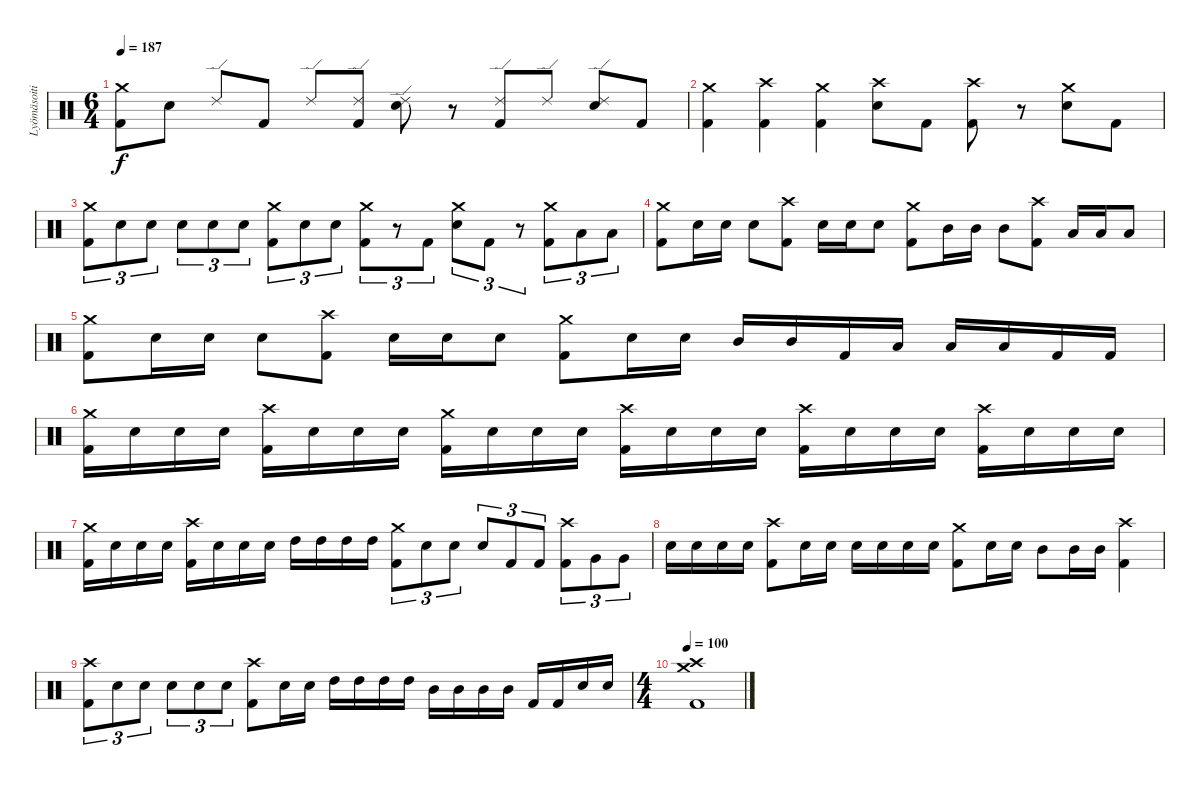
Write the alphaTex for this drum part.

\track ("Lyömäsoitin" "Lyömäsoiti") {instrument percussion}
\staff {score}
\articulation defaults
\ts (6 4)
\tempo 187
\clef neutral
\ks c
("Kick (hit) 2" "Crash medium (hit)").8{dy f} "Snare (hit) 2".8 "Ride (edge) 2".8 "Kick (hit) 2".8 "Ride (edge) 2".8 ("Ride (edge) 2" "Kick (hit) 2").8 ("Ride (edge) 2" "Snare (hit) 2").8 r.8 ("Ride (edge) 2" "Kick (hit) 2").8 "Ride (edge) 2".8 ("Ride (edge) 2" "Snare (hit) 2").8 "Kick (hit) 2".8 |
("Kick (hit) 2" "Crash medium (hit)").4 ("Crash high (hit)" "Kick (hit) 2").4 ("Kick (hit) 2" "Crash medium (hit)").4 ("Snare (hit) 2" "Crash high (hit)").8 "Kick (hit) 2".8 ("Kick (hit) 2" "Crash high (hit)").8 r.8 ("Crash medium (hit)" "Snare (hit) 2").8 "Kick (hit) 2".8 |
("Kick (hit) 2" "Crash medium (hit)").8{tu (3 2)} "Snare (hit) 2".8{tu (3 2)} "Snare (hit) 2".8{tu (3 2)} "Snare (hit) 2".8{tu (3 2)} "Snare (hit) 2".8{tu (3 2)} "Snare (hit) 2".8{tu (3 2)} ("Kick (hit) 2" "Crash medium (hit)").8{tu (3 2)} "Snare (hit) 2".8{tu (3 2)} "Snare (hit) 2".8{tu (3 2)} ("Kick (hit) 2" "Crash medium (hit)").8{tu (3 2)} r.8{tu (3 2)} "Kick (hit) 2".8{tu (3 2)} ("Crash medium (hit)" "Snare (hit) 2").8{tu (3 2)} "Kick (hit) 2".8{tu (3 2)} r.8{tu (3 2)} ("Kick (hit) 2" "Crash medium (hit)").8{tu (3 2)} "Low Tom (hit)".8{tu (3 2)} "Low Tom (hit)".8{tu (3 2)} |
("Kick (hit) 2" "Crash medium (hit)").8 "Snare (hit) 2".16 "Snare (hit) 2".16 "Snare (hit) 2".8 ("Kick (hit) 2" "Crash high (hit)").8 "Snare (hit) 2".16 "Snare (hit) 2".16 "Snare (hit) 2".8 ("Kick (hit) 2" "Crash medium (hit)").8 "Mid Tom (hit)".16 "Mid Tom (hit)".16 "Mid Tom (hit)".8 ("Kick (hit) 2" "Crash high (hit)").8 "Low Tom (hit)".16 "Low Tom (hit)".16 "Low Tom (hit)".8 |
("Kick (hit) 2" "Crash medium (hit)").8 "Snare (hit) 2".16 "Snare (hit) 2".16 "Snare (hit) 2".8 ("Kick (hit) 2" "Crash high (hit)").8 "Snare (hit) 2".16 "Snare (hit) 2".16 "Snare (hit) 2".8 ("Kick (hit) 2" "Crash medium (hit)").8 "Snare (hit) 2".16 "Snare (hit) 2".16 "Mid Tom (hit)".16 "Mid Tom (hit)".16 "Kick (hit) 2".16 "Low Tom (hit)".16 "Low Tom (hit)".16 "Low Tom (hit)".16 "Kick (hit) 2".16 "Kick (hit) 2".16 |
("Kick (hit) 2" "Crash medium (hit)").16 "Snare (hit) 2".16 "Snare (hit) 2".16 "Snare (hit) 2".16 ("Kick (hit) 2" "Crash high (hit)").16 "Snare (hit) 2".16 "Snare (hit) 2".16 "Snare (hit) 2".16 ("Kick (hit) 2" "Crash medium (hit)").16 "Snare (hit) 2".16 "Snare (hit) 2".16 "Snare (hit) 2".16 ("Kick (hit) 2" "Crash high (hit)").16 "Snare (hit) 2".16 "Snare (hit) 2".16 "Snare (hit) 2".16 ("Kick (hit) 2" "Crash high (hit)").16 "Snare (hit) 2".16 "Snare (hit) 2".16 "Snare (hit) 2".16 ("Kick (hit) 2" "Crash high (hit)").16 "Snare (hit) 2".16 "Snare (hit) 2".16 "Snare (hit) 2".16 |
("Crash medium (hit)" "Kick (hit) 2").16 "Snare (hit) 2".16 "Snare (hit) 2".16 "Snare (hit) 2".16 ("Kick (hit) 2" "Crash high (hit)").16 "Snare (hit) 2".16 "Snare (hit) 2".16 "Snare (hit) 2".16 "High Tom (hit)".16 "High Tom (hit)".16 "High Tom (hit)".16 "High Tom (hit)".16 ("Kick (hit) 2" "Crash medium (hit)").8{tu (3 2)} "Snare (hit) 2".8{tu (3 2)} "Snare (hit) 2".8{tu (3 2)} "Snare (hit) 2".8{tu (3 2)} "Kick (hit) 2".8{tu (3 2)} "Kick (hit) 2".8{tu (3 2)} ("Kick (hit) 2" "Crash high (hit)").8{tu (3 2)} "Very Low Tom (hit)".8{tu (3 2)} "Very Low Tom (hit)".8{tu (3 2)} |
"Snare (hit) 2".16 "Snare (hit) 2".16 "Snare (hit) 2".16 "Snare (hit) 2".16 ("Kick (hit) 2" "Crash high (hit)").8 "Snare (hit) 2".16 "Snare (hit) 2".16 "Snare (hit) 2".16 "Snare (hit) 2".16 "Snare (hit) 2".16 "Snare (hit) 2".16 ("Kick (hit) 2" "Crash medium (hit)").8 "Snare (hit) 2".16 "Snare (hit) 2".16 "Mid Tom (hit)".8 "Mid Tom (hit)".16 "Mid Tom (hit)".16 ("Kick (hit) 2" "Crash high (hit)").4 |
("Kick (hit) 2" "Crash high (hit)").8{tu (3 2)} "Snare (hit) 2".8{tu (3 2)} "Snare (hit) 2".8{tu (3 2)} "Snare (hit) 2".8{tu (3 2)} "Snare (hit) 2".8{tu (3 2)} "Snare (hit) 2".8{tu (3 2)} ("Kick (hit) 2" "Crash high (hit)").8 "Snare (hit) 2".16 "Snare (hit) 2".16 "High Tom (hit)".16 "High Tom (hit)".16 "High Tom (hit)".16 "High Tom (hit)".16 "Mid Tom (hit)".16 "Mid Tom (hit)".16 "Mid Tom (hit)".16 "Mid Tom (hit)".16 "Kick (hit) 2".16 "Kick (hit) 2".16 "Snare (hit) 2".16 "Snare (hit) 2".16 |
\ts (4 4)
\tempo 100
("Kick (hit) 2" "Crash medium (hit)" "Crash high (hit)").1
